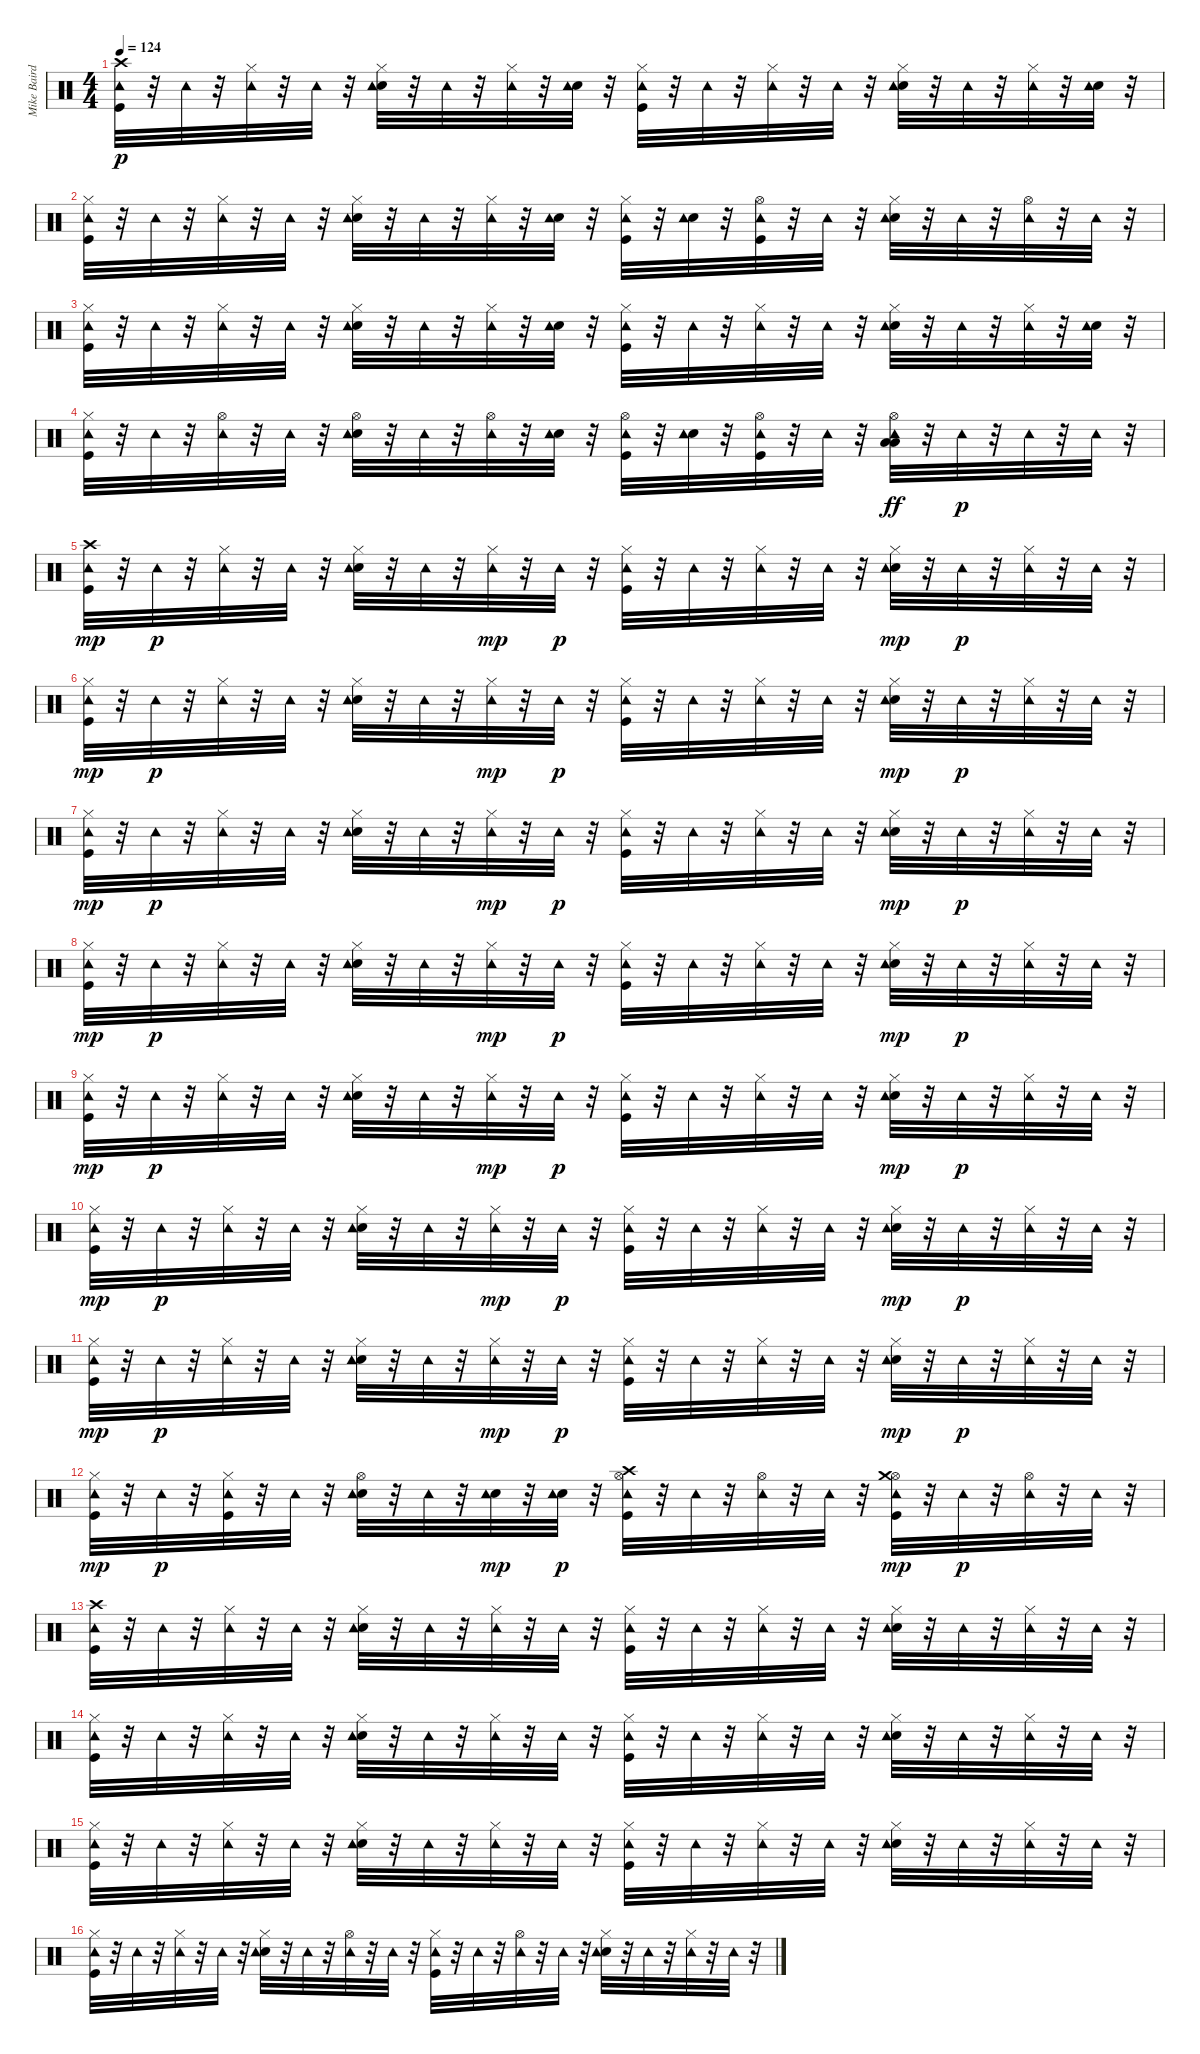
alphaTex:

\track ("Mike Baird [drums]" "Mike Baird") {instrument percussion}
\staff {score}
\articulation defaults
\ts (4 4)
\tempo 124
\clef neutral
\ks c
("Kick (hit)" "Crash high (hit)" "Tambourine (hit)").32{dy p} r.32 "Tambourine (hit)".32 r.32 ("Hi-Hat (closed)" "Tambourine (hit)").32 r.32 "Tambourine (hit)".32 r.32 ("Electric Snare (hit)" "Hi-Hat (closed)" "Tambourine (hit)").32 r.32 "Tambourine (hit)".32 r.32 ("Hi-Hat (closed)" "Tambourine (hit)").32 r.32 ("Electric Snare (hit)" "Tambourine (hit)").32 r.32 ("Kick (hit)" "Hi-Hat (closed)" "Tambourine (hit)").32 r.32 "Tambourine (hit)".32 r.32 ("Hi-Hat (closed)" "Tambourine (hit)").32 r.32 "Tambourine (hit)".32 r.32 ("Electric Snare (hit)" "Hi-Hat (closed)" "Tambourine (hit)").32 r.32 "Tambourine (hit)".32 r.32 ("Hi-Hat (closed)" "Tambourine (hit)").32 r.32 ("Electric Snare (hit)" "Tambourine (hit)").32 r.32 |
("Kick (hit)" "Hi-Hat (closed)" "Tambourine (hit)").32 r.32 "Tambourine (hit)".32 r.32 ("Hi-Hat (closed)" "Tambourine (hit)").32 r.32 "Tambourine (hit)".32 r.32 ("Electric Snare (hit)" "Hi-Hat (closed)" "Tambourine (hit)").32 r.32 "Tambourine (hit)".32 r.32 ("Hi-Hat (closed)" "Tambourine (hit)").32 r.32 ("Electric Snare (hit)" "Tambourine (hit)").32 r.32 ("Kick (hit)" "Hi-Hat (closed)" "Tambourine (hit)").32 r.32 ("Electric Snare (hit)" "Tambourine (hit)").32 r.32 ("Kick (hit)" "Hi-Hat (open)" "Tambourine (hit)").32 r.32 "Tambourine (hit)".32 r.32 ("Electric Snare (hit)" "Hi-Hat (closed)" "Tambourine (hit)").32 r.32 "Tambourine (hit)".32 r.32 ("Hi-Hat (open)" "Tambourine (hit)").32 r.32 "Tambourine (hit)".32 r.32 |
("Kick (hit)" "Hi-Hat (closed)" "Tambourine (hit)").32 r.32 "Tambourine (hit)".32 r.32 ("Hi-Hat (closed)" "Tambourine (hit)").32 r.32 "Tambourine (hit)".32 r.32 ("Electric Snare (hit)" "Hi-Hat (closed)" "Tambourine (hit)").32 r.32 "Tambourine (hit)".32 r.32 ("Hi-Hat (closed)" "Tambourine (hit)").32 r.32 ("Electric Snare (hit)" "Tambourine (hit)").32 r.32 ("Kick (hit)" "Hi-Hat (closed)" "Tambourine (hit)").32 r.32 "Tambourine (hit)".32 r.32 ("Hi-Hat (closed)" "Tambourine (hit)").32 r.32 "Tambourine (hit)".32 r.32 ("Electric Snare (hit)" "Hi-Hat (closed)" "Tambourine (hit)").32 r.32 "Tambourine (hit)".32 r.32 ("Hi-Hat (closed)" "Tambourine (hit)").32 r.32 ("Electric Snare (hit)" "Tambourine (hit)").32 r.32 |
("Kick (hit)" "Hi-Hat (closed)" "Tambourine (hit)").32 r.32 "Tambourine (hit)".32 r.32 ("Hi-Hat (open)" "Tambourine (hit)").32 r.32 "Tambourine (hit)".32 r.32 ("Electric Snare (hit)" "Hi-Hat (open)" "Tambourine (hit)").32 r.32 "Tambourine (hit)".32 r.32 ("Hi-Hat (open)" "Tambourine (hit)").32 r.32 ("Electric Snare (hit)" "Tambourine (hit)").32 r.32 ("Kick (hit)" "Hi-Hat (open)" "Tambourine (hit)").32 r.32 ("Electric Snare (hit)" "Tambourine (hit)").32 r.32 ("Kick (hit)" "Hi-Hat (open)" "Tambourine (hit)").32 r.32 "Tambourine (hit)".32 r.32 ("Hi-Hat (open)" "Low Tom (hit)" "Tambourine (hit)" "Low Floor Tom (hit)").32{dy ff} r.32 "Tambourine (hit)".32{dy p} r.32 "Tambourine (hit)".32 r.32 "Tambourine (hit)".32 r.32 |
("Kick (hit)" "Crash high (hit)" "Tambourine (hit)").32{dy mp} r.32 "Tambourine (hit)".32{dy p} r.32 ("Hi-Hat (closed)" "Tambourine (hit)").32 r.32 "Tambourine (hit)".32 r.32 ("Electric Snare (hit)" "Hi-Hat (closed)" "Tambourine (hit)").32 r.32 "Tambourine (hit)".32 r.32 ("Hi-Hat (closed)" "Tambourine (hit)").32{dy mp} r.32 "Tambourine (hit)".32{dy p} r.32 ("Kick (hit)" "Hi-Hat (closed)" "Tambourine (hit)").32 r.32 "Tambourine (hit)".32 r.32 ("Hi-Hat (closed)" "Tambourine (hit)").32 r.32 "Tambourine (hit)".32 r.32 ("Electric Snare (hit)" "Hi-Hat (closed)" "Tambourine (hit)").32{dy mp} r.32 "Tambourine (hit)".32{dy p} r.32 ("Hi-Hat (closed)" "Tambourine (hit)").32 r.32 "Tambourine (hit)".32 r.32 |
("Kick (hit)" "Hi-Hat (closed)" "Tambourine (hit)").32{dy mp} r.32 "Tambourine (hit)".32{dy p} r.32 ("Hi-Hat (closed)" "Tambourine (hit)").32 r.32 "Tambourine (hit)".32 r.32 ("Electric Snare (hit)" "Hi-Hat (closed)" "Tambourine (hit)").32 r.32 "Tambourine (hit)".32 r.32 ("Hi-Hat (closed)" "Tambourine (hit)").32{dy mp} r.32 "Tambourine (hit)".32{dy p} r.32 ("Kick (hit)" "Hi-Hat (closed)" "Tambourine (hit)").32 r.32 "Tambourine (hit)".32 r.32 ("Hi-Hat (closed)" "Tambourine (hit)").32 r.32 "Tambourine (hit)".32 r.32 ("Electric Snare (hit)" "Hi-Hat (closed)" "Tambourine (hit)").32{dy mp} r.32 "Tambourine (hit)".32{dy p} r.32 ("Hi-Hat (closed)" "Tambourine (hit)").32 r.32 "Tambourine (hit)".32 r.32 |
("Kick (hit)" "Hi-Hat (closed)" "Tambourine (hit)").32{dy mp} r.32 "Tambourine (hit)".32{dy p} r.32 ("Hi-Hat (closed)" "Tambourine (hit)").32 r.32 "Tambourine (hit)".32 r.32 ("Electric Snare (hit)" "Hi-Hat (closed)" "Tambourine (hit)").32 r.32 "Tambourine (hit)".32 r.32 ("Hi-Hat (closed)" "Tambourine (hit)").32{dy mp} r.32 "Tambourine (hit)".32{dy p} r.32 ("Kick (hit)" "Hi-Hat (closed)" "Tambourine (hit)").32 r.32 "Tambourine (hit)".32 r.32 ("Hi-Hat (closed)" "Tambourine (hit)").32 r.32 "Tambourine (hit)".32 r.32 ("Electric Snare (hit)" "Hi-Hat (closed)" "Tambourine (hit)").32{dy mp} r.32 "Tambourine (hit)".32{dy p} r.32 ("Hi-Hat (closed)" "Tambourine (hit)").32 r.32 "Tambourine (hit)".32 r.32 |
("Kick (hit)" "Hi-Hat (closed)" "Tambourine (hit)").32{dy mp} r.32 "Tambourine (hit)".32{dy p} r.32 ("Hi-Hat (closed)" "Tambourine (hit)").32 r.32 "Tambourine (hit)".32 r.32 ("Electric Snare (hit)" "Hi-Hat (closed)" "Tambourine (hit)").32 r.32 "Tambourine (hit)".32 r.32 ("Hi-Hat (closed)" "Tambourine (hit)").32{dy mp} r.32 "Tambourine (hit)".32{dy p} r.32 ("Kick (hit)" "Hi-Hat (closed)" "Tambourine (hit)").32 r.32 "Tambourine (hit)".32 r.32 ("Hi-Hat (closed)" "Tambourine (hit)").32 r.32 "Tambourine (hit)".32 r.32 ("Electric Snare (hit)" "Hi-Hat (closed)" "Tambourine (hit)").32{dy mp} r.32 "Tambourine (hit)".32{dy p} r.32 ("Hi-Hat (closed)" "Tambourine (hit)").32 r.32 "Tambourine (hit)".32 r.32 |
("Kick (hit)" "Hi-Hat (closed)" "Tambourine (hit)").32{dy mp} r.32 "Tambourine (hit)".32{dy p} r.32 ("Hi-Hat (closed)" "Tambourine (hit)").32 r.32 "Tambourine (hit)".32 r.32 ("Electric Snare (hit)" "Hi-Hat (closed)" "Tambourine (hit)").32 r.32 "Tambourine (hit)".32 r.32 ("Hi-Hat (closed)" "Tambourine (hit)").32{dy mp} r.32 "Tambourine (hit)".32{dy p} r.32 ("Kick (hit)" "Hi-Hat (closed)" "Tambourine (hit)").32 r.32 "Tambourine (hit)".32 r.32 ("Hi-Hat (closed)" "Tambourine (hit)").32 r.32 "Tambourine (hit)".32 r.32 ("Electric Snare (hit)" "Hi-Hat (closed)" "Tambourine (hit)").32{dy mp} r.32 "Tambourine (hit)".32{dy p} r.32 ("Hi-Hat (closed)" "Tambourine (hit)").32 r.32 "Tambourine (hit)".32 r.32 |
("Kick (hit)" "Hi-Hat (closed)" "Tambourine (hit)").32{dy mp} r.32 "Tambourine (hit)".32{dy p} r.32 ("Hi-Hat (closed)" "Tambourine (hit)").32 r.32 "Tambourine (hit)".32 r.32 ("Electric Snare (hit)" "Hi-Hat (closed)" "Tambourine (hit)").32 r.32 "Tambourine (hit)".32 r.32 ("Hi-Hat (closed)" "Tambourine (hit)").32{dy mp} r.32 "Tambourine (hit)".32{dy p} r.32 ("Kick (hit)" "Hi-Hat (closed)" "Tambourine (hit)").32 r.32 "Tambourine (hit)".32 r.32 ("Hi-Hat (closed)" "Tambourine (hit)").32 r.32 "Tambourine (hit)".32 r.32 ("Electric Snare (hit)" "Hi-Hat (closed)" "Tambourine (hit)").32{dy mp} r.32 "Tambourine (hit)".32{dy p} r.32 ("Hi-Hat (closed)" "Tambourine (hit)").32 r.32 "Tambourine (hit)".32 r.32 |
("Kick (hit)" "Hi-Hat (closed)" "Tambourine (hit)").32{dy mp} r.32 "Tambourine (hit)".32{dy p} r.32 ("Hi-Hat (closed)" "Tambourine (hit)").32 r.32 "Tambourine (hit)".32 r.32 ("Electric Snare (hit)" "Hi-Hat (closed)" "Tambourine (hit)").32 r.32 "Tambourine (hit)".32 r.32 ("Hi-Hat (closed)" "Tambourine (hit)").32{dy mp} r.32 "Tambourine (hit)".32{dy p} r.32 ("Kick (hit)" "Hi-Hat (closed)" "Tambourine (hit)").32 r.32 "Tambourine (hit)".32 r.32 ("Hi-Hat (closed)" "Tambourine (hit)").32 r.32 "Tambourine (hit)".32 r.32 ("Electric Snare (hit)" "Hi-Hat (closed)" "Tambourine (hit)").32{dy mp} r.32 "Tambourine (hit)".32{dy p} r.32 ("Hi-Hat (closed)" "Tambourine (hit)").32 r.32 "Tambourine (hit)".32 r.32 |
("Kick (hit)" "Hi-Hat (closed)" "Tambourine (hit)").32{dy mp} r.32 "Tambourine (hit)".32{dy p} r.32 ("Kick (hit)" "Hi-Hat (closed)" "Tambourine (hit)").32 r.32 "Tambourine (hit)".32 r.32 ("Electric Snare (hit)" "Hi-Hat (open)" "Tambourine (hit)").32 r.32 "Tambourine (hit)".32 r.32 ("Electric Snare (hit)" "Tambourine (hit)").32{dy mp} r.32 ("Electric Snare (hit)" "Tambourine (hit)").32{dy p} r.32 ("Kick (hit)" "Hi-Hat (open)" "Crash high (hit)" "Tambourine (hit)").32 r.32 "Tambourine (hit)".32 r.32 ("Hi-Hat (open)" "Tambourine (hit)").32 r.32 "Tambourine (hit)".32 r.32 ("Kick (hit)" "Hi-Hat (open)" "Crash medium (hit)" "Tambourine (hit)").32{dy mp} r.32 "Tambourine (hit)".32{dy p} r.32 ("Hi-Hat (open)" "Tambourine (hit)").32 r.32 "Tambourine (hit)".32 r.32 |
("Kick (hit)" "Crash high (hit)" "Tambourine (hit)").32 r.32 "Tambourine (hit)".32 r.32 ("Hi-Hat (closed)" "Tambourine (hit)").32 r.32 "Tambourine (hit)".32 r.32 ("Electric Snare (hit)" "Hi-Hat (closed)" "Tambourine (hit)").32 r.32 "Tambourine (hit)".32 r.32 ("Hi-Hat (closed)" "Tambourine (hit)").32 r.32 "Tambourine (hit)".32 r.32 ("Kick (hit)" "Hi-Hat (closed)" "Tambourine (hit)").32 r.32 "Tambourine (hit)".32 r.32 ("Hi-Hat (closed)" "Tambourine (hit)").32 r.32 "Tambourine (hit)".32 r.32 ("Electric Snare (hit)" "Hi-Hat (closed)" "Tambourine (hit)").32 r.32 "Tambourine (hit)".32 r.32 ("Hi-Hat (closed)" "Tambourine (hit)").32 r.32 "Tambourine (hit)".32 r.32 |
("Kick (hit)" "Hi-Hat (closed)" "Tambourine (hit)").32 r.32 "Tambourine (hit)".32 r.32 ("Hi-Hat (closed)" "Tambourine (hit)").32 r.32 "Tambourine (hit)".32 r.32 ("Electric Snare (hit)" "Hi-Hat (closed)" "Tambourine (hit)").32 r.32 "Tambourine (hit)".32 r.32 ("Hi-Hat (closed)" "Tambourine (hit)").32 r.32 "Tambourine (hit)".32 r.32 ("Kick (hit)" "Hi-Hat (closed)" "Tambourine (hit)").32 r.32 "Tambourine (hit)".32 r.32 ("Hi-Hat (closed)" "Tambourine (hit)").32 r.32 "Tambourine (hit)".32 r.32 ("Electric Snare (hit)" "Hi-Hat (closed)" "Tambourine (hit)").32 r.32 "Tambourine (hit)".32 r.32 ("Hi-Hat (closed)" "Tambourine (hit)").32 r.32 "Tambourine (hit)".32 r.32 |
("Kick (hit)" "Hi-Hat (closed)" "Tambourine (hit)").32 r.32 "Tambourine (hit)".32 r.32 ("Hi-Hat (closed)" "Tambourine (hit)").32 r.32 "Tambourine (hit)".32 r.32 ("Electric Snare (hit)" "Hi-Hat (closed)" "Tambourine (hit)").32 r.32 "Tambourine (hit)".32 r.32 ("Hi-Hat (closed)" "Tambourine (hit)").32 r.32 "Tambourine (hit)".32 r.32 ("Kick (hit)" "Hi-Hat (closed)" "Tambourine (hit)").32 r.32 "Tambourine (hit)".32 r.32 ("Hi-Hat (closed)" "Tambourine (hit)").32 r.32 "Tambourine (hit)".32 r.32 ("Electric Snare (hit)" "Hi-Hat (closed)" "Tambourine (hit)").32 r.32 "Tambourine (hit)".32 r.32 ("Hi-Hat (closed)" "Tambourine (hit)").32 r.32 "Tambourine (hit)".32 r.32 |
("Kick (hit)" "Hi-Hat (closed)" "Tambourine (hit)").32 r.32 "Tambourine (hit)".32 r.32 ("Hi-Hat (closed)" "Tambourine (hit)").32 r.32 "Tambourine (hit)".32 r.32 ("Electric Snare (hit)" "Hi-Hat (closed)" "Tambourine (hit)").32 r.32 "Tambourine (hit)".32 r.32 ("Hi-Hat (open)" "Tambourine (hit)").32 r.32 "Tambourine (hit)".32 r.32 ("Kick (hit)" "Hi-Hat (closed)" "Tambourine (hit)").32 r.32 "Tambourine (hit)".32 r.32 ("Hi-Hat (open)" "Tambourine (hit)").32 r.32 "Tambourine (hit)".32 r.32 ("Electric Snare (hit)" "Hi-Hat (closed)" "Tambourine (hit)").32 r.32 "Tambourine (hit)".32 r.32 ("Hi-Hat (closed)" "Tambourine (hit)").32 r.32 "Tambourine (hit)".32 r.32
